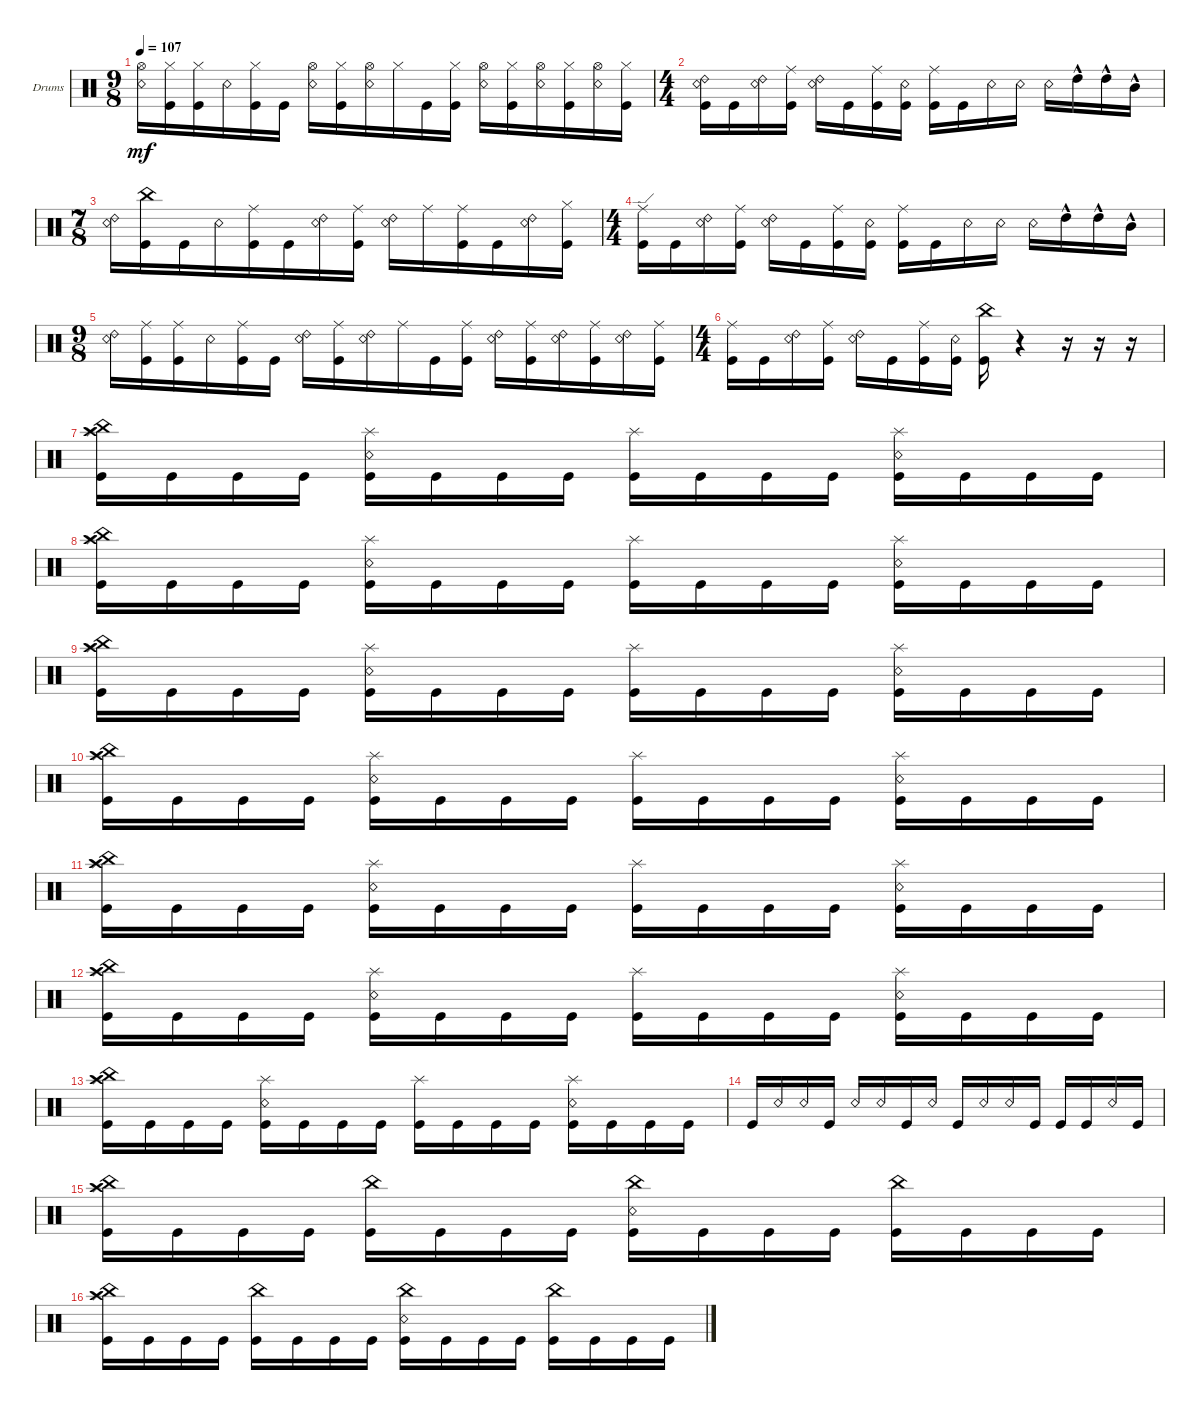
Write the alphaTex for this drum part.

\defaultSystemsLayout 4
\bracketExtendMode groupsimilarinstruments
\firstSystemTrackNameOrientation horizontal
\otherSystemsTrackNameOrientation horizontal
\track ("Drumkit" "Drums") {instrument percussion}
\staff {score}
\articulation defaults
\ts (9 8)
\tempo 107
\clef neutral
\scale
0.333333
\ks c
("Snare (rim shot)" "Hi-Hat (open)").16{dy mf} ("Kick (hit)" "Hi-Hat (closed)").16 ("Kick (hit)" "Hi-Hat (closed)").16 "Snare (rim shot)".16 ("Kick (hit)" "Hi-Hat (closed)").16 "Kick (hit)".16 ("Snare (rim shot)" "Hi-Hat (open)").16 ("Kick (hit)" "Hi-Hat (closed)").16 ("Snare (rim shot)" "Hi-Hat (open)").16 "Hi-Hat (closed)".16 "Kick (hit)".16 ("Kick (hit)" "Hi-Hat (closed)").16 ("Snare (rim shot)" "Hi-Hat (open)").16 ("Kick (hit)" "Hi-Hat (closed)").16 ("Snare (rim shot)" "Hi-Hat (open)").16 ("Kick (hit)" "Hi-Hat (closed)").16 ("Snare (rim shot)" "Hi-Hat (open)").16 ("Kick (hit)" "Hi-Hat (closed)").16 |
\ts (4 4)
("Kick (hit)" "Snare (rim shot)" "Ride (bell) 2").16 "Kick (hit)".16 ("Snare (rim shot)" "Ride (bell) 2").16 ("Kick (hit)" "Ride (middle)").16 ("Snare (rim shot)" "Ride (bell) 2").16 "Kick (hit)".16 ("Kick (hit)" "Ride (middle)").16 ("Kick (hit)" "Snare (rim shot)").16 ("Kick (hit)" "Ride (middle)").16 "Kick (hit)".16 "Snare (rim shot)".16 "Snare (rim shot)".16 "Snare (rim shot)".16 "High Tom (hit)"{hac}.16 "High Tom (hit)"{hac}.16 "Mid Tom (hit)"{hac}.16 |
\ts (7 8)
("Snare (rim shot)" "Ride (bell) 2").16 ("Kick (hit)" "China (hit)").16 "Kick (hit)".16 "Snare (rim shot)".16 ("Kick (hit)" "Ride (middle)").16 "Kick (hit)".16 ("Snare (rim shot)" "Ride (bell) 2").16 ("Kick (hit)" "Ride (middle)").16 ("Snare (rim shot)" "Ride (bell) 2").16 "Ride (middle)".16 ("Kick (hit)" "Ride (middle)").16 "Kick (hit)".16 ("Snare (rim shot)" "Ride (bell) 2").16 ("Kick (hit)" "Hi-Hat (closed)").16 |
\ts (4 4)
("Kick (hit)" "Ride (edge)").16 "Kick (hit)".16 ("Snare (rim shot)" "Ride (bell) 2").16 ("Kick (hit)" "Ride (middle)").16 ("Snare (rim shot)" "Ride (bell) 2").16 "Kick (hit)".16 ("Kick (hit)" "Ride (middle)").16 ("Kick (hit)" "Snare (rim shot)").16 ("Kick (hit)" "Ride (middle)").16 "Kick (hit)".16 "Snare (rim shot)".16 "Snare (rim shot)".16 "Snare (rim shot)".16 "High Tom (hit)"{hac}.16 "High Tom (hit)"{hac}.16 "Mid Tom (hit)"{hac}.16 |
\ts (9 8)
("Snare (rim shot)" "Ride (bell) 2").16 ("Kick (hit)" "Ride (middle)").16 ("Kick (hit)" "Ride (middle)").16 "Snare (rim shot)".16 ("Kick (hit)" "Ride (middle)").16 "Kick (hit)".16 ("Snare (rim shot)" "Ride (bell) 2").16 ("Kick (hit)" "Ride (middle)").16 ("Snare (rim shot)" "Ride (bell) 2").16 "Ride (middle)".16 "Kick (hit)".16 ("Kick (hit)" "Ride (middle)").16 ("Snare (rim shot)" "Ride (bell) 2").16 ("Kick (hit)" "Ride (middle)").16 ("Snare (rim shot)" "Ride (bell) 2").16 ("Kick (hit)" "Ride (middle)").16 ("Snare (rim shot)" "Ride (bell) 2").16 ("Kick (hit)" "Ride (middle)").16 |
\ts (4 4)
\scale
0.333333 ("Kick (hit)" "Ride (middle)").16 "Kick (hit)".16 ("Snare (rim shot)" "Ride (bell) 2").16 ("Kick (hit)" "Ride (middle)").16 ("Snare (rim shot)" "Ride (bell) 2").16 "Kick (hit)".16 ("Kick (hit)" "Ride (middle)").16 ("Kick (hit)" "Snare (rim shot)").16 ("Kick (hit)" "China (hit)").16 r.4 r.16 r.16 r.16 |
\scale
0.333333 ("Kick (hit)" "China (hit)" "Splash (hit)" "Crash high (hit)").16 "Kick (hit)".16 "Kick (hit)".16 "Kick (hit)".16 ("Kick (hit)" "Snare (rim shot)" "Splash (hit)").16 "Kick (hit)".16 "Kick (hit)".16 "Kick (hit)".16 ("Kick (hit)" "Splash (hit)").16 "Kick (hit)".16 "Kick (hit)".16 "Kick (hit)".16 ("Kick (hit)" "Snare (rim shot)" "Splash (hit)").16 "Kick (hit)".16 "Kick (hit)".16 "Kick (hit)".16 |
\scale
0.333333 ("Kick (hit)" "China (hit)" "Splash (hit)" "Crash high (hit)").16 "Kick (hit)".16 "Kick (hit)".16 "Kick (hit)".16 ("Kick (hit)" "Snare (rim shot)" "Splash (hit)").16 "Kick (hit)".16 "Kick (hit)".16 "Kick (hit)".16 ("Kick (hit)" "Splash (hit)").16 "Kick (hit)".16 "Kick (hit)".16 "Kick (hit)".16 ("Kick (hit)" "Snare (rim shot)" "Splash (hit)").16 "Kick (hit)".16 "Kick (hit)".16 "Kick (hit)".16 |
\scale
0.333333 ("Kick (hit)" "China (hit)" "Splash (hit)" "Crash high (hit)").16 "Kick (hit)".16 "Kick (hit)".16 "Kick (hit)".16 ("Kick (hit)" "Snare (rim shot)" "Splash (hit)").16 "Kick (hit)".16 "Kick (hit)".16 "Kick (hit)".16 ("Kick (hit)" "Splash (hit)").16 "Kick (hit)".16 "Kick (hit)".16 "Kick (hit)".16 ("Kick (hit)" "Snare (rim shot)" "Splash (hit)").16 "Kick (hit)".16 "Kick (hit)".16 "Kick (hit)".16 |
\scale
0.333333 ("Kick (hit)" "China (hit)" "Splash (hit)" "Crash high (hit)").16 "Kick (hit)".16 "Kick (hit)".16 "Kick (hit)".16 ("Kick (hit)" "Snare (rim shot)" "Splash (hit)").16 "Kick (hit)".16 "Kick (hit)".16 "Kick (hit)".16 ("Kick (hit)" "Splash (hit)").16 "Kick (hit)".16 "Kick (hit)".16 "Kick (hit)".16 ("Kick (hit)" "Snare (rim shot)" "Splash (hit)").16 "Kick (hit)".16 "Kick (hit)".16 "Kick (hit)".16 |
("Kick (hit)" "China (hit)" "Splash (hit)" "Crash high (hit)").16 "Kick (hit)".16 "Kick (hit)".16 "Kick (hit)".16 ("Kick (hit)" "Snare (rim shot)" "Splash (hit)").16 "Kick (hit)".16 "Kick (hit)".16 "Kick (hit)".16 ("Kick (hit)" "Splash (hit)").16 "Kick (hit)".16 "Kick (hit)".16 "Kick (hit)".16 ("Kick (hit)" "Snare (rim shot)" "Splash (hit)").16 "Kick (hit)".16 "Kick (hit)".16 "Kick (hit)".16 |
("Kick (hit)" "China (hit)" "Splash (hit)" "Crash high (hit)").16 "Kick (hit)".16 "Kick (hit)".16 "Kick (hit)".16 ("Kick (hit)" "Snare (rim shot)" "Splash (hit)").16 "Kick (hit)".16 "Kick (hit)".16 "Kick (hit)".16 ("Kick (hit)" "Splash (hit)").16 "Kick (hit)".16 "Kick (hit)".16 "Kick (hit)".16 ("Kick (hit)" "Snare (rim shot)" "Splash (hit)").16 "Kick (hit)".16 "Kick (hit)".16 "Kick (hit)".16 |
("Kick (hit)" "China (hit)" "Splash (hit)" "Crash high (hit)").16 "Kick (hit)".16 "Kick (hit)".16 "Kick (hit)".16 ("Kick (hit)" "Snare (rim shot)" "Splash (hit)").16 "Kick (hit)".16 "Kick (hit)".16 "Kick (hit)".16 ("Kick (hit)" "Splash (hit)").16 "Kick (hit)".16 "Kick (hit)".16 "Kick (hit)".16 ("Kick (hit)" "Snare (rim shot)" "Splash (hit)").16 "Kick (hit)".16 "Kick (hit)".16 "Kick (hit)".16 |
"Kick (hit)".16 "Snare (rim shot)".16 "Snare (rim shot)".16 "Kick (hit)".16 "Snare (rim shot)".16 "Snare (rim shot)".16 "Kick (hit)".16 "Snare (rim shot)".16 "Kick (hit)".16 "Snare (rim shot)".16 "Snare (rim shot)".16 "Kick (hit)".16 "Kick (hit)".16 "Kick (hit)".16 "Snare (rim shot)".16 "Kick (hit)".16 |
\scale
0.333333 ("Kick (hit)" "China (hit)" "Splash (hit)" "Crash high (hit)").16 "Kick (hit)".16 "Kick (hit)".16 "Kick (hit)".16 ("Kick (hit)" "China (hit)").16 "Kick (hit)".16 "Kick (hit)".16 "Kick (hit)".16 ("Kick (hit)" "Snare (rim shot)" "China (hit)").16 "Kick (hit)".16 "Kick (hit)".16 "Kick (hit)".16 ("Kick (hit)" "China (hit)").16 "Kick (hit)".16 "Kick (hit)".16 "Kick (hit)".16 |
\scale
0.333333 ("Kick (hit)" "China (hit)" "Splash (hit)" "Crash high (hit)").16 "Kick (hit)".16 "Kick (hit)".16 "Kick (hit)".16 ("Kick (hit)" "China (hit)").16 "Kick (hit)".16 "Kick (hit)".16 "Kick (hit)".16 ("Kick (hit)" "Snare (rim shot)" "China (hit)").16 "Kick (hit)".16 "Kick (hit)".16 "Kick (hit)".16 ("Kick (hit)" "China (hit)").16 "Kick (hit)".16 "Kick (hit)".16 "Kick (hit)".16
